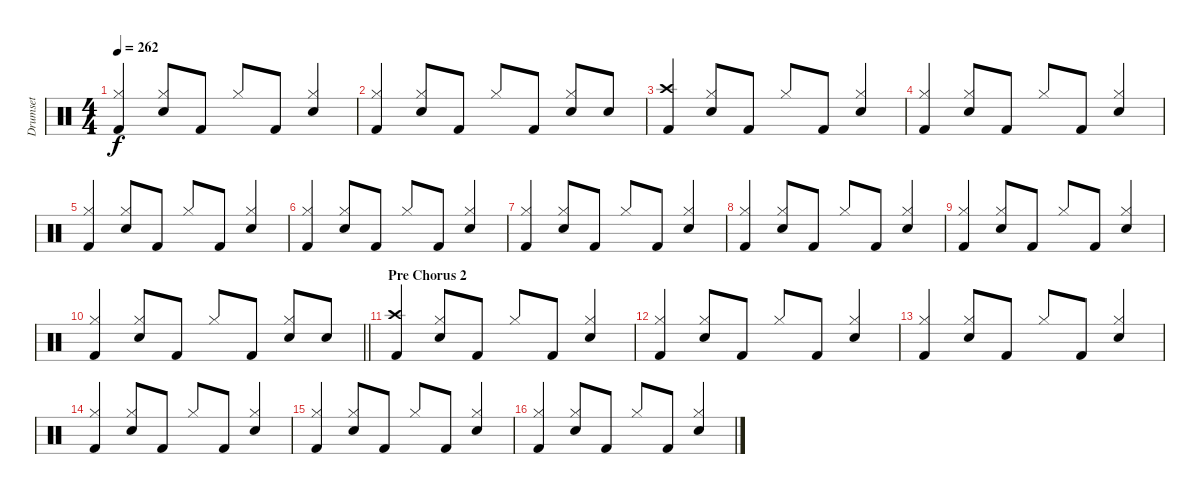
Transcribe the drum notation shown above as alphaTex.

\track ("Drumset" "Drumset") {instrument percussion}
\staff {score}
\articulation defaults
\ts (4 4)
\tempo 262
\clef neutral
\ks c
("Hi-Hat (closed)" "Kick (hit) 2").4{dy f beam Up} ("Hi-Hat (closed)" "Snare (hit) 2").8{beam Up} "Kick (hit) 2".8{beam Up} "Hi-Hat (closed)".8{beam Up} "Kick (hit) 2".8{beam Up} ("Snare (hit) 2" "Hi-Hat (closed)").4{beam Up} |
("Hi-Hat (closed)" "Kick (hit) 2").4{beam Up} ("Hi-Hat (closed)" "Snare (hit) 2").8{beam Up} "Kick (hit) 2".8{beam Up} "Hi-Hat (closed)".8{beam Up} "Kick (hit) 2".8{beam Up} ("Snare (hit) 2" "Hi-Hat (closed)").8{beam Up} "Snare (hit) 2".8{beam Up} |
("Crash high (hit)" "Kick (hit) 2").4{beam Up} ("Snare (hit) 2" "Hi-Hat (closed)").8{beam Up} "Kick (hit) 2".8{beam Up} "Hi-Hat (closed)".8{beam Up} "Kick (hit) 2".8{beam Up} ("Snare (hit) 2" "Hi-Hat (closed)").4{beam Up} |
("Hi-Hat (closed)" "Kick (hit) 2").4{beam Up} ("Hi-Hat (closed)" "Snare (hit) 2").8{beam Up} "Kick (hit) 2".8{beam Up} "Hi-Hat (closed)".8{beam Up} "Kick (hit) 2".8{beam Up} ("Snare (hit) 2" "Hi-Hat (closed)").4{beam Up} |
("Hi-Hat (closed)" "Kick (hit) 2").4{beam Up} ("Hi-Hat (closed)" "Snare (hit) 2").8{beam Up} "Kick (hit) 2".8{beam Up} "Hi-Hat (closed)".8{beam Up} "Kick (hit) 2".8{beam Up} ("Snare (hit) 2" "Hi-Hat (closed)").4{beam Up} |
("Hi-Hat (closed)" "Kick (hit) 2").4{beam Up} ("Hi-Hat (closed)" "Snare (hit) 2").8{beam Up} "Kick (hit) 2".8{beam Up} "Hi-Hat (closed)".8{beam Up} "Kick (hit) 2".8{beam Up} ("Snare (hit) 2" "Hi-Hat (closed)").4{beam Up} |
("Hi-Hat (closed)" "Kick (hit) 2").4{beam Up} ("Hi-Hat (closed)" "Snare (hit) 2").8{beam Up} "Kick (hit) 2".8{beam Up} "Hi-Hat (closed)".8{beam Up} "Kick (hit) 2".8{beam Up} ("Snare (hit) 2" "Hi-Hat (closed)").4{beam Up} |
("Hi-Hat (closed)" "Kick (hit) 2").4{beam Up} ("Hi-Hat (closed)" "Snare (hit) 2").8{beam Up} "Kick (hit) 2".8{beam Up} "Hi-Hat (closed)".8{beam Up} "Kick (hit) 2".8{beam Up} ("Snare (hit) 2" "Hi-Hat (closed)").4{beam Up} |
("Hi-Hat (closed)" "Kick (hit) 2").4{beam Up} ("Hi-Hat (closed)" "Snare (hit) 2").8{beam Up} "Kick (hit) 2".8{beam Up} "Hi-Hat (closed)".8{beam Up} "Kick (hit) 2".8{beam Up} ("Snare (hit) 2" "Hi-Hat (closed)").4{beam Up} |
\barLineRight lightlight
("Hi-Hat (closed)" "Kick (hit) 2").4{beam Up} ("Hi-Hat (closed)" "Snare (hit) 2").8{beam Up} "Kick (hit) 2".8{beam Up} "Hi-Hat (closed)".8{beam Up} "Kick (hit) 2".8{beam Up} ("Snare (hit) 2" "Hi-Hat (closed)").8{beam Up} "Snare (hit) 2".8{beam Up} |
\section ("" "Pre Chorus 2")
("Crash high (hit)" "Kick (hit) 2").4{beam Up} ("Hi-Hat (closed)" "Snare (hit) 2").8{beam Up} "Kick (hit) 2".8{beam Up} "Hi-Hat (closed)".8{beam Up} "Kick (hit) 2".8{beam Up} ("Snare (hit) 2" "Hi-Hat (closed)").4{beam Up} |
("Hi-Hat (closed)" "Kick (hit) 2").4{beam Up} ("Hi-Hat (closed)" "Snare (hit) 2").8{beam Up} "Kick (hit) 2".8{beam Up} "Hi-Hat (closed)".8{beam Up} "Kick (hit) 2".8{beam Up} ("Snare (hit) 2" "Hi-Hat (closed)").4{beam Up} |
("Hi-Hat (closed)" "Kick (hit) 2").4{beam Up} ("Hi-Hat (closed)" "Snare (hit) 2").8{beam Up} "Kick (hit) 2".8{beam Up} "Hi-Hat (closed)".8{beam Up} "Kick (hit) 2".8{beam Up} ("Snare (hit) 2" "Hi-Hat (closed)").4{beam Up} |
("Hi-Hat (closed)" "Kick (hit) 2").4{beam Up} ("Hi-Hat (closed)" "Snare (hit) 2").8{beam Up} "Kick (hit) 2".8{beam Up} "Hi-Hat (closed)".8{beam Up} "Kick (hit) 2".8{beam Up} ("Snare (hit) 2" "Hi-Hat (closed)").4{beam Up} |
("Hi-Hat (closed)" "Kick (hit) 2").4{beam Up} ("Hi-Hat (closed)" "Snare (hit) 2").8{beam Up} "Kick (hit) 2".8{beam Up} "Hi-Hat (closed)".8{beam Up} "Kick (hit) 2".8{beam Up} ("Snare (hit) 2" "Hi-Hat (closed)").4{beam Up} |
("Hi-Hat (closed)" "Kick (hit) 2").4{beam Up} ("Hi-Hat (closed)" "Snare (hit) 2").8{beam Up} "Kick (hit) 2".8{beam Up} "Hi-Hat (closed)".8{beam Up} "Kick (hit) 2".8{beam Up} ("Snare (hit) 2" "Hi-Hat (closed)").4{beam Up}
